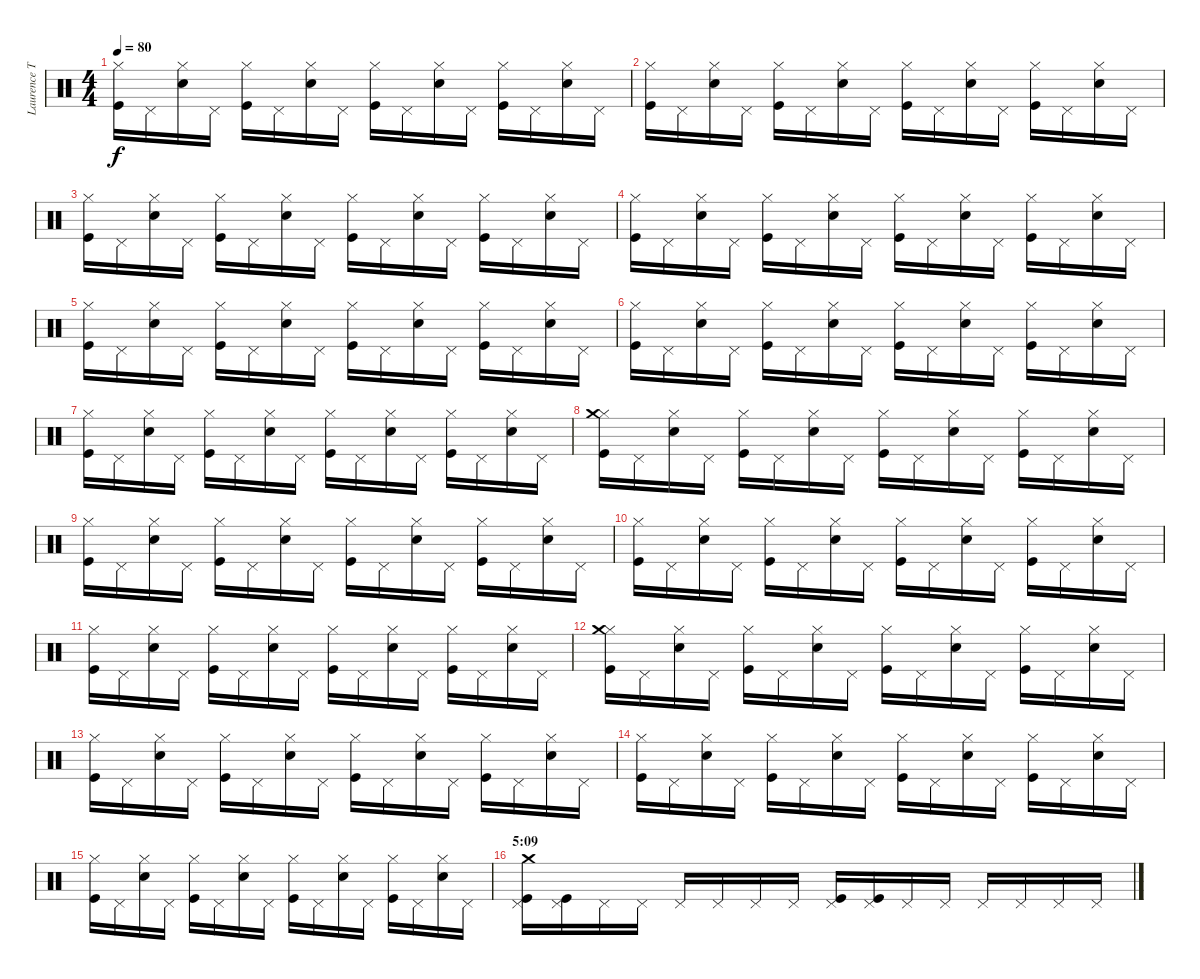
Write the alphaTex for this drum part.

\track ("Laurence Tolhurst (drums)" "Laurence T") {instrument percussion}
\staff {score}
\articulation defaults
\ts (4 4)
\tempo 80
\clef neutral
\ks c
("Kick (hit)" "Hi-Hat (closed)").16{dy f} "Pedal Hi-Hat (hit)".16 ("Snare (hit) 2" "Hi-Hat (closed)").16 "Pedal Hi-Hat (hit)".16 ("Kick (hit)" "Hi-Hat (closed)").16 "Pedal Hi-Hat (hit)".16 ("Snare (hit) 2" "Hi-Hat (closed)").16 "Pedal Hi-Hat (hit)".16 ("Kick (hit)" "Hi-Hat (closed)").16 "Pedal Hi-Hat (hit)".16 ("Snare (hit) 2" "Hi-Hat (closed)").16 "Pedal Hi-Hat (hit)".16 ("Kick (hit)" "Hi-Hat (closed)").16 "Pedal Hi-Hat (hit)".16 ("Snare (hit) 2" "Hi-Hat (closed)").16 "Pedal Hi-Hat (hit)".16 |
("Kick (hit)" "Hi-Hat (closed)").16 "Pedal Hi-Hat (hit)".16 ("Snare (hit) 2" "Hi-Hat (closed)").16 "Pedal Hi-Hat (hit)".16 ("Kick (hit)" "Hi-Hat (closed)").16 "Pedal Hi-Hat (hit)".16 ("Snare (hit) 2" "Hi-Hat (closed)").16 "Pedal Hi-Hat (hit)".16 ("Kick (hit)" "Hi-Hat (closed)").16 "Pedal Hi-Hat (hit)".16 ("Snare (hit) 2" "Hi-Hat (closed)").16 "Pedal Hi-Hat (hit)".16 ("Kick (hit)" "Hi-Hat (closed)").16 "Pedal Hi-Hat (hit)".16 ("Snare (hit) 2" "Hi-Hat (closed)").16 "Pedal Hi-Hat (hit)".16 |
("Kick (hit)" "Hi-Hat (closed)").16 "Pedal Hi-Hat (hit)".16 ("Snare (hit) 2" "Hi-Hat (closed)").16 "Pedal Hi-Hat (hit)".16 ("Kick (hit)" "Hi-Hat (closed)").16 "Pedal Hi-Hat (hit)".16 ("Snare (hit) 2" "Hi-Hat (closed)").16 "Pedal Hi-Hat (hit)".16 ("Kick (hit)" "Hi-Hat (closed)").16 "Pedal Hi-Hat (hit)".16 ("Snare (hit) 2" "Hi-Hat (closed)").16 "Pedal Hi-Hat (hit)".16 ("Kick (hit)" "Hi-Hat (closed)").16 "Pedal Hi-Hat (hit)".16 ("Snare (hit) 2" "Hi-Hat (closed)").16 "Pedal Hi-Hat (hit)".16 |
("Kick (hit)" "Hi-Hat (closed)").16 "Pedal Hi-Hat (hit)".16 ("Snare (hit) 2" "Hi-Hat (closed)").16 "Pedal Hi-Hat (hit)".16 ("Kick (hit)" "Hi-Hat (closed)").16 "Pedal Hi-Hat (hit)".16 ("Snare (hit) 2" "Hi-Hat (closed)").16 "Pedal Hi-Hat (hit)".16 ("Kick (hit)" "Hi-Hat (closed)").16 "Pedal Hi-Hat (hit)".16 ("Snare (hit) 2" "Hi-Hat (closed)").16 "Pedal Hi-Hat (hit)".16 ("Kick (hit)" "Hi-Hat (closed)").16 "Pedal Hi-Hat (hit)".16 ("Snare (hit) 2" "Hi-Hat (closed)").16 "Pedal Hi-Hat (hit)".16 |
("Kick (hit)" "Hi-Hat (closed)").16 "Pedal Hi-Hat (hit)".16 ("Snare (hit) 2" "Hi-Hat (closed)").16 "Pedal Hi-Hat (hit)".16 ("Kick (hit)" "Hi-Hat (closed)").16 "Pedal Hi-Hat (hit)".16 ("Snare (hit) 2" "Hi-Hat (closed)").16 "Pedal Hi-Hat (hit)".16 ("Kick (hit)" "Hi-Hat (closed)").16 "Pedal Hi-Hat (hit)".16 ("Snare (hit) 2" "Hi-Hat (closed)").16 "Pedal Hi-Hat (hit)".16 ("Kick (hit)" "Hi-Hat (closed)").16 "Pedal Hi-Hat (hit)".16 ("Snare (hit) 2" "Hi-Hat (closed)").16 "Pedal Hi-Hat (hit)".16 |
("Kick (hit)" "Hi-Hat (closed)").16 "Pedal Hi-Hat (hit)".16 ("Snare (hit) 2" "Hi-Hat (closed)").16 "Pedal Hi-Hat (hit)".16 ("Kick (hit)" "Hi-Hat (closed)").16 "Pedal Hi-Hat (hit)".16 ("Snare (hit) 2" "Hi-Hat (closed)").16 "Pedal Hi-Hat (hit)".16 ("Kick (hit)" "Hi-Hat (closed)").16 "Pedal Hi-Hat (hit)".16 ("Snare (hit) 2" "Hi-Hat (closed)").16 "Pedal Hi-Hat (hit)".16 ("Kick (hit)" "Hi-Hat (closed)").16 "Pedal Hi-Hat (hit)".16 ("Snare (hit) 2" "Hi-Hat (closed)").16 "Pedal Hi-Hat (hit)".16 |
("Kick (hit)" "Hi-Hat (closed)").16 "Pedal Hi-Hat (hit)".16 ("Snare (hit) 2" "Hi-Hat (closed)").16 "Pedal Hi-Hat (hit)".16 ("Kick (hit)" "Hi-Hat (closed)").16 "Pedal Hi-Hat (hit)".16 ("Snare (hit) 2" "Hi-Hat (closed)").16 "Pedal Hi-Hat (hit)".16 ("Kick (hit)" "Hi-Hat (closed)").16 "Pedal Hi-Hat (hit)".16 ("Snare (hit) 2" "Hi-Hat (closed)").16 "Pedal Hi-Hat (hit)".16 ("Kick (hit)" "Hi-Hat (closed)").16 "Pedal Hi-Hat (hit)".16 ("Snare (hit) 2" "Hi-Hat (closed)").16 "Pedal Hi-Hat (hit)".16 |
("Kick (hit)" "Hi-Hat (closed)" "Crash medium (hit)").16 "Pedal Hi-Hat (hit)".16 ("Snare (hit) 2" "Hi-Hat (closed)").16 "Pedal Hi-Hat (hit)".16 ("Kick (hit)" "Hi-Hat (closed)").16 "Pedal Hi-Hat (hit)".16 ("Snare (hit) 2" "Hi-Hat (closed)").16 "Pedal Hi-Hat (hit)".16 ("Kick (hit)" "Hi-Hat (closed)").16 "Pedal Hi-Hat (hit)".16 ("Snare (hit) 2" "Hi-Hat (closed)").16 "Pedal Hi-Hat (hit)".16 ("Kick (hit)" "Hi-Hat (closed)").16 "Pedal Hi-Hat (hit)".16 ("Snare (hit) 2" "Hi-Hat (closed)").16 "Pedal Hi-Hat (hit)".16 |
("Kick (hit)" "Hi-Hat (closed)").16 "Pedal Hi-Hat (hit)".16 ("Snare (hit) 2" "Hi-Hat (closed)").16 "Pedal Hi-Hat (hit)".16 ("Kick (hit)" "Hi-Hat (closed)").16 "Pedal Hi-Hat (hit)".16 ("Snare (hit) 2" "Hi-Hat (closed)").16 "Pedal Hi-Hat (hit)".16 ("Kick (hit)" "Hi-Hat (closed)").16 "Pedal Hi-Hat (hit)".16 ("Snare (hit) 2" "Hi-Hat (closed)").16 "Pedal Hi-Hat (hit)".16 ("Kick (hit)" "Hi-Hat (closed)").16 "Pedal Hi-Hat (hit)".16 ("Snare (hit) 2" "Hi-Hat (closed)").16 "Pedal Hi-Hat (hit)".16 |
("Kick (hit)" "Hi-Hat (closed)").16 "Pedal Hi-Hat (hit)".16 ("Snare (hit) 2" "Hi-Hat (closed)").16 "Pedal Hi-Hat (hit)".16 ("Kick (hit)" "Hi-Hat (closed)").16 "Pedal Hi-Hat (hit)".16 ("Snare (hit) 2" "Hi-Hat (closed)").16 "Pedal Hi-Hat (hit)".16 ("Kick (hit)" "Hi-Hat (closed)").16 "Pedal Hi-Hat (hit)".16 ("Snare (hit) 2" "Hi-Hat (closed)").16 "Pedal Hi-Hat (hit)".16 ("Kick (hit)" "Hi-Hat (closed)").16 "Pedal Hi-Hat (hit)".16 ("Snare (hit) 2" "Hi-Hat (closed)").16 "Pedal Hi-Hat (hit)".16 |
("Kick (hit)" "Hi-Hat (closed)").16 "Pedal Hi-Hat (hit)".16 ("Snare (hit) 2" "Hi-Hat (closed)").16 "Pedal Hi-Hat (hit)".16 ("Kick (hit)" "Hi-Hat (closed)").16 "Pedal Hi-Hat (hit)".16 ("Snare (hit) 2" "Hi-Hat (closed)").16 "Pedal Hi-Hat (hit)".16 ("Kick (hit)" "Hi-Hat (closed)").16 "Pedal Hi-Hat (hit)".16 ("Snare (hit) 2" "Hi-Hat (closed)").16 "Pedal Hi-Hat (hit)".16 ("Kick (hit)" "Hi-Hat (closed)").16 "Pedal Hi-Hat (hit)".16 ("Snare (hit) 2" "Hi-Hat (closed)").16 "Pedal Hi-Hat (hit)".16 |
("Kick (hit)" "Hi-Hat (closed)" "Crash medium (hit)").16 "Pedal Hi-Hat (hit)".16 ("Snare (hit) 2" "Hi-Hat (closed)").16 "Pedal Hi-Hat (hit)".16 ("Kick (hit)" "Hi-Hat (closed)").16 "Pedal Hi-Hat (hit)".16 ("Snare (hit) 2" "Hi-Hat (closed)").16 "Pedal Hi-Hat (hit)".16 ("Kick (hit)" "Hi-Hat (closed)").16 "Pedal Hi-Hat (hit)".16 ("Snare (hit) 2" "Hi-Hat (closed)").16 "Pedal Hi-Hat (hit)".16 ("Kick (hit)" "Hi-Hat (closed)").16 "Pedal Hi-Hat (hit)".16 ("Snare (hit) 2" "Hi-Hat (closed)").16 "Pedal Hi-Hat (hit)".16 |
("Kick (hit)" "Hi-Hat (closed)").16 "Pedal Hi-Hat (hit)".16 ("Snare (hit) 2" "Hi-Hat (closed)").16 "Pedal Hi-Hat (hit)".16 ("Kick (hit)" "Hi-Hat (closed)").16 "Pedal Hi-Hat (hit)".16 ("Snare (hit) 2" "Hi-Hat (closed)").16 "Pedal Hi-Hat (hit)".16 ("Kick (hit)" "Hi-Hat (closed)").16 "Pedal Hi-Hat (hit)".16 ("Snare (hit) 2" "Hi-Hat (closed)").16 "Pedal Hi-Hat (hit)".16 ("Kick (hit)" "Hi-Hat (closed)").16 "Pedal Hi-Hat (hit)".16 ("Snare (hit) 2" "Hi-Hat (closed)").16 "Pedal Hi-Hat (hit)".16 |
("Kick (hit)" "Hi-Hat (closed)").16 "Pedal Hi-Hat (hit)".16 ("Snare (hit) 2" "Hi-Hat (closed)").16 "Pedal Hi-Hat (hit)".16 ("Kick (hit)" "Hi-Hat (closed)").16 "Pedal Hi-Hat (hit)".16 ("Snare (hit) 2" "Hi-Hat (closed)").16 "Pedal Hi-Hat (hit)".16 ("Kick (hit)" "Hi-Hat (closed)").16 "Pedal Hi-Hat (hit)".16 ("Snare (hit) 2" "Hi-Hat (closed)").16 "Pedal Hi-Hat (hit)".16 ("Kick (hit)" "Hi-Hat (closed)").16 "Pedal Hi-Hat (hit)".16 ("Snare (hit) 2" "Hi-Hat (closed)").16 "Pedal Hi-Hat (hit)".16 |
("Kick (hit)" "Hi-Hat (closed)").16 "Pedal Hi-Hat (hit)".16 ("Snare (hit) 2" "Hi-Hat (closed)").16 "Pedal Hi-Hat (hit)".16 ("Kick (hit)" "Hi-Hat (closed)").16 "Pedal Hi-Hat (hit)".16 ("Snare (hit) 2" "Hi-Hat (closed)").16 "Pedal Hi-Hat (hit)".16 ("Kick (hit)" "Hi-Hat (closed)").16 "Pedal Hi-Hat (hit)".16 ("Snare (hit) 2" "Hi-Hat (closed)").16 "Pedal Hi-Hat (hit)".16 ("Kick (hit)" "Hi-Hat (closed)").16 "Pedal Hi-Hat (hit)".16 ("Snare (hit) 2" "Hi-Hat (closed)").16 "Pedal Hi-Hat (hit)".16 |
\section ("" "5:09")
("Pedal Hi-Hat (hit)" "Kick (hit)" "Crash medium (hit)").16 ("Pedal Hi-Hat (hit)" "Kick (hit)").16 "Pedal Hi-Hat (hit)".16 "Pedal Hi-Hat (hit)".16 "Pedal Hi-Hat (hit)".16 "Pedal Hi-Hat (hit)".16 "Pedal Hi-Hat (hit)".16 "Pedal Hi-Hat (hit)".16 ("Pedal Hi-Hat (hit)" "Kick (hit)").16 ("Pedal Hi-Hat (hit)" "Kick (hit)").16 "Pedal Hi-Hat (hit)".16 "Pedal Hi-Hat (hit)".16 "Pedal Hi-Hat (hit)".16 "Pedal Hi-Hat (hit)".16 "Pedal Hi-Hat (hit)".16 "Pedal Hi-Hat (hit)".16
